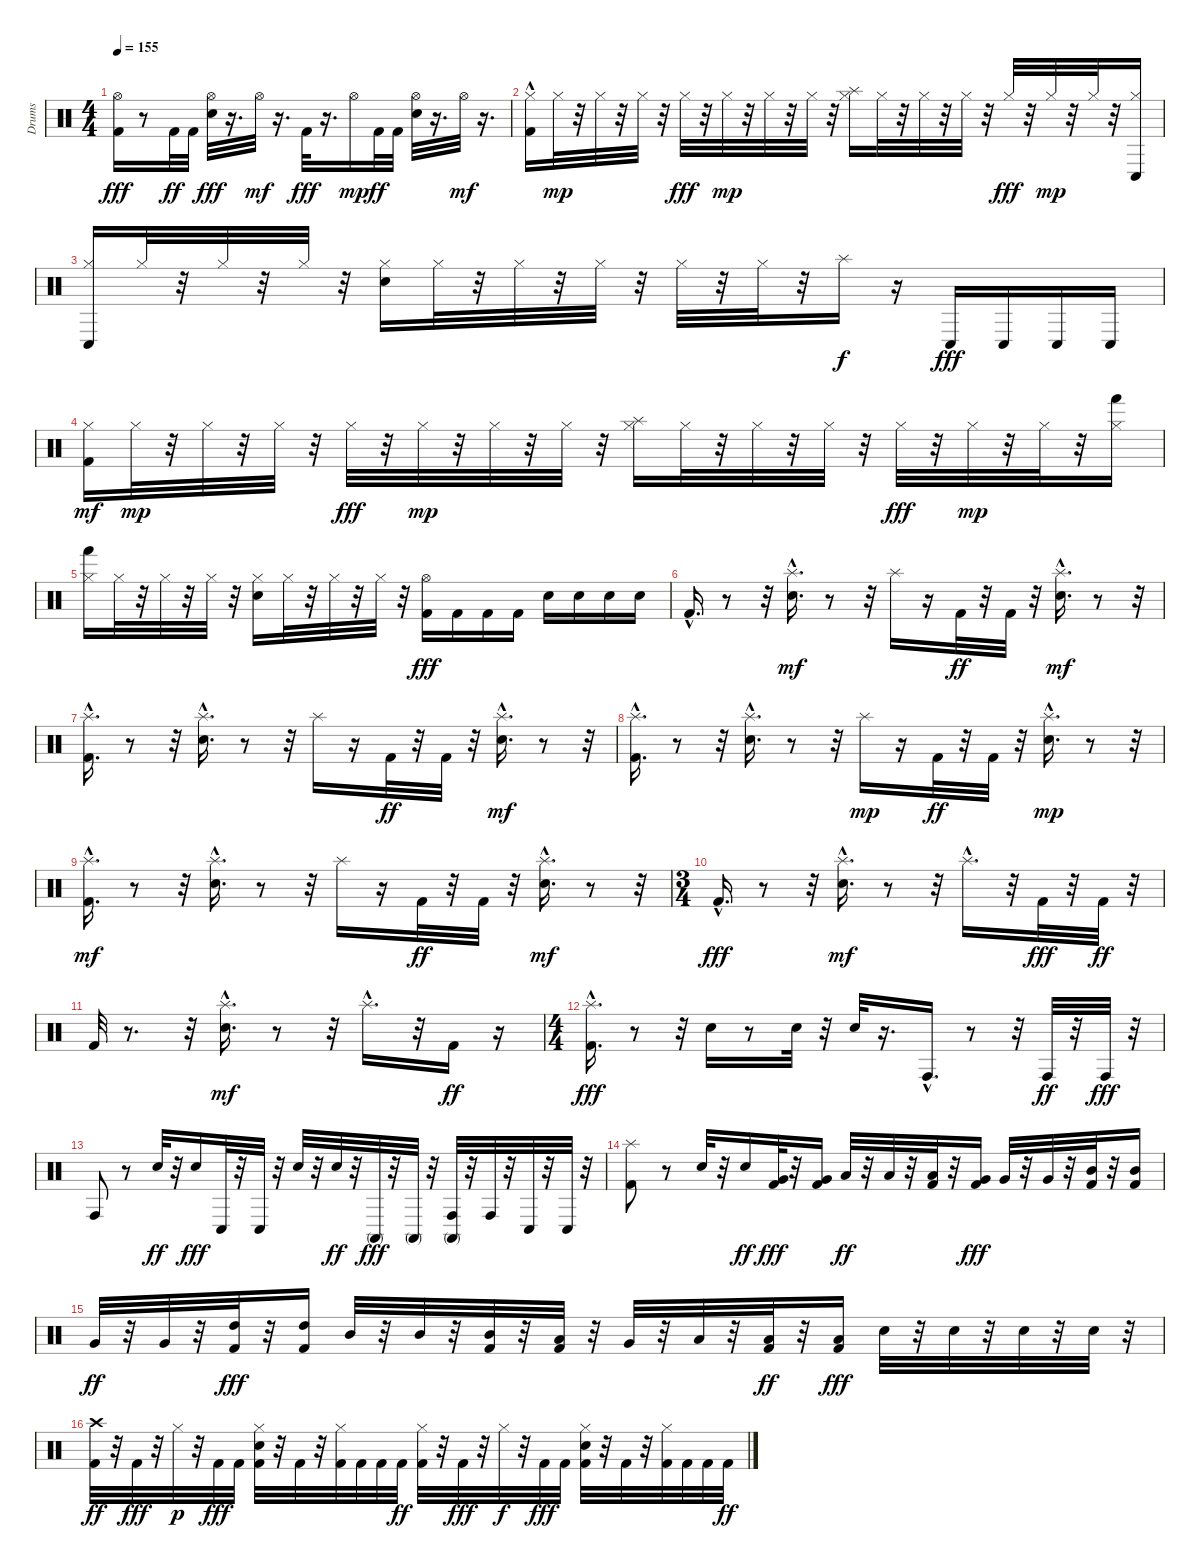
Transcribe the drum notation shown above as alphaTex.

\track ("Drums" "Drums") {instrument percussion}
\staff {score}
\articulation defaults
\ts (4 4)
\tempo 155
\clef neutral
\ks c
("Hi-Hat (open)" "Kick (hit) 2").16{dy fff} r.8 "Kick (hit) 2".32{dy ff} "Kick (hit) 2".32 ("Hi-Hat (open)" "Electric Snare (hit)").32{dy fff} r.16{d} "Hi-Hat (open)".32{dy mf} r.16{d} "Kick (hit) 2".32{dy fff} r.16{d} "Hi-Hat (open)".16{dy mp} "Kick (hit) 2".32{dy ff} "Kick (hit) 2".32 ("Hi-Hat (open)" "Electric Snare (hit)").32 r.16{d} "Hi-Hat (open)".32{dy mf} r.16{d} |
("Kick (hit) 2"{hac} "Hi-Hat (closed)").16 "Hi-Hat (closed)".32{dy mp} r.32 "Hi-Hat (closed)".32 r.32 "Hi-Hat (closed)".32 r.32 "Hi-Hat (closed)".32{dy fff} r.32 "Hi-Hat (closed)".32{dy mp} r.32 "Hi-Hat (closed)".32 r.32 "Hi-Hat (closed)".32 r.32 ("Hi-Hat (closed)" "Splash (hit)").16 "Hi-Hat (closed)".32 r.32 "Hi-Hat (closed)".32 r.32 "Hi-Hat (closed)".32 r.32 "Hi-Hat (closed)".32{dy fff} r.32 "Hi-Hat (closed)".32{dy mp} r.32 "Hi-Hat (closed)".32 r.32 ("Conga low (hit)" "Hi-Hat (closed)").16 |
("Conga low (hit)" "Hi-Hat (closed)").16 "Hi-Hat (closed)".32 r.32 "Hi-Hat (closed)".32 r.32 "Hi-Hat (closed)".32 r.32 ("Electric Snare (hit)" "Hi-Hat (closed)").16 "Hi-Hat (closed)".32 r.32 "Hi-Hat (closed)".32 r.32 "Hi-Hat (closed)".32 r.32 "Hi-Hat (closed)".32 r.32 "Hi-Hat (closed)".32 r.32 "Splash (hit)".16{dy f} r.16 "Conga low (hit)".16{dy fff} "Conga low (hit)".16 "Conga low (hit)".16 "Conga low (hit)".16 |
("Kick (hit) 2" "Hi-Hat (closed)").16{dy mf} "Hi-Hat (closed)".32{dy mp} r.32 "Hi-Hat (closed)".32 r.32 "Hi-Hat (closed)".32 r.32 "Hi-Hat (closed)".32{dy fff} r.32 "Hi-Hat (closed)".32{dy mp} r.32 "Hi-Hat (closed)".32 r.32 "Hi-Hat (closed)".32 r.32 ("Hi-Hat (closed)" "Splash (hit)").16 "Hi-Hat (closed)".32 r.32 "Hi-Hat (closed)".32 r.32 "Hi-Hat (closed)".32 r.32 "Hi-Hat (closed)".32{dy fff} r.32 "Hi-Hat (closed)".32{dy mp} r.32 "Hi-Hat (closed)".32 r.32 ("Hand (hit)" "Hi-Hat (closed)").16 |
("Hand (hit)" "Hi-Hat (closed)").16 "Hi-Hat (closed)".32 r.32 "Hi-Hat (closed)".32 r.32 "Hi-Hat (closed)".32 r.32 ("Electric Snare (hit)" "Hi-Hat (closed)").16 "Hi-Hat (closed)".32 r.32 "Hi-Hat (closed)".32 r.32 "Hi-Hat (closed)".32 r.32 ("Kick (hit) 2" "Hi-Hat (open)").16{dy fff} "Kick (hit) 2".16 "Kick (hit) 2".16 "Kick (hit) 2".16 "Electric Snare (hit)".16 "Electric Snare (hit)".16 "Electric Snare (hit)".16 "Electric Snare (hit)".16 |
"Kick (hit) 2"{hac}.16{d} r.8 r.32 ("Electric Snare (hit)"{hac} "Splash (hit)"{hac}).16{d dy mf} r.8 r.32 "Splash (hit)".16 r.16 "Kick (hit) 2".32{dy ff} r.32 "Kick (hit) 2".32 r.32 ("Electric Snare (hit)"{hac} "Splash (hit)").16{d dy mf} r.8 r.32 |
("Kick (hit) 2"{hac} "Splash (hit)").16{d} r.8 r.32 ("Electric Snare (hit)"{hac} "Splash (hit)").16{d} r.8 r.32 "Splash (hit)".16 r.16 "Kick (hit) 2".32{dy ff} r.32 "Kick (hit) 2".32 r.32 ("Electric Snare (hit)"{hac} "Splash (hit)").16{d dy mf} r.8 r.32 |
("Kick (hit) 2"{hac} "Splash (hit)").16{d} r.8 r.32 ("Electric Snare (hit)"{hac} "Splash (hit)").16{d} r.8 r.32 "Splash (hit)".16{dy mp} r.16 "Kick (hit) 2".32{dy ff} r.32 "Kick (hit) 2".32 r.32 ("Electric Snare (hit)"{hac} "Splash (hit)").16{d dy mp} r.8 r.32 |
("Kick (hit) 2"{hac} "Splash (hit)").16{d dy mf} r.8 r.32 ("Electric Snare (hit)"{hac} "Splash (hit)").16{d} r.8 r.32 "Splash (hit)".16 r.16 "Kick (hit) 2".32{dy ff} r.32 "Kick (hit) 2".32 r.32 ("Electric Snare (hit)"{hac} "Splash (hit)"{hac}).16{d dy mf} r.8 r.32 |
\ts (3 4)
"Kick (hit) 2"{hac}.16{d dy fff} r.8 r.32 ("Electric Snare (hit)"{hac} "Splash (hit)"{hac}).16{d dy mf} r.8 r.32 "Splash (hit)"{hac}.16{d} r.32 "Kick (hit) 2".32{dy fff} r.32 "Kick (hit) 2".32{dy ff} r.32 |
"Kick (hit) 2".32 r.8{d} r.32 ("Electric Snare (hit)"{hac} "Splash (hit)"{hac}).16{d dy mf} r.8 r.32 "Splash (hit)"{hac}.16{d} r.32 "Kick (hit) 2".16{dy ff} r.16 |
\ts (4 4)
("Kick (hit) 2"{hac} "Splash (hit)").16{d dy fff} r.8 r.32 "Electric Snare (hit)".16 r.8 "Electric Snare (hit)".32 r.32 "Electric Snare (hit)".32 r.16{d} "Conga high (hit)"{hac}.16{d} r.8 r.32 "Conga high (hit)".32{dy ff} r.32 "Conga high (hit)".32{dy fff} r.32 |
"Conga high (hit)".8 r.8 "Electric Snare (hit)".32{dy ff} r.32 "Electric Snare (hit)".16{dy fff} "Conga low (hit)".32 r.32 "Conga low (hit)".32 r.32 "Electric Snare (hit)".32 r.32 "Electric Snare (hit)".32{dy ff} r.32 "Conga high (mute)".32{dy fff} r.32 "Conga high (mute)".32 r.32 ("Conga high (mute)" "Conga high (hit)").32 r.32 "Conga high (hit)".32 r.32 "Conga low (hit)".32 r.32 "Conga low (hit)".32 r.32 |
("Kick (hit) 2" "Splash (hit)").8 r.8 "Electric Snare (hit)".32 r.32 "Electric Snare (hit)".16{dy ff} ("Kick (hit) 2" "Very Low Tom (hit)").32{dy fff} r.32 ("Kick (hit) 2" "Very Low Tom (hit)").16 "Low Tom (hit)".32{dy ff} r.32 "Low Tom (hit)".32 r.32 ("Kick (hit) 2" "Low Tom (hit)").32 r.32 ("Kick (hit) 2" "Very Low Tom (hit)").16{dy fff} "Very Low Tom (hit)".32 r.32 "Very Low Tom (hit)".32 r.32 ("Kick (hit) 2" "Mid Tom (hit)").32 r.32 ("Kick (hit) 2" "Mid Tom (hit)").16 |
"Very Low Tom (hit)".32{dy ff} r.32 "Very Low Tom (hit)".32 r.32 ("Kick (hit) 2" "High Tom (hit)").32{dy fff} r.32 ("Kick (hit) 2" "High Tom (hit)").16 "Mid Tom (hit)".32 r.32 "Mid Tom (hit)".32 r.32 ("Kick (hit) 2" "Mid Tom (hit)").32 r.32 ("Kick (hit) 2" "Low Tom (hit)").32 r.32 "Very Low Tom (hit)".32 r.32 "Low Tom (hit)".32 r.32 ("Kick (hit) 2" "Low Tom (hit)").32{dy ff} r.32 ("Kick (hit) 2" "Low Tom (hit)").16{dy fff} "Electric Snare (hit)".32 r.32 "Electric Snare (hit)".32 r.32 "Electric Snare (hit)".32 r.32 "Electric Snare (hit)".32 r.32 |
("Crash high (hit)" "Kick (hit) 2").32{dy ff} r.32 "Kick (hit) 2".32{dy fff} r.32 "Hi-Hat (closed)".32{dy p} r.32 "Kick (hit) 2".32{dy fff} "Kick (hit) 2".32 ("Hi-Hat (closed)" "Kick (hit) 2" "Electric Snare (hit)").32 r.32 "Kick (hit) 2".32 r.32 ("Hi-Hat (closed)" "Kick (hit) 2").32 "Kick (hit) 2".32 "Kick (hit) 2".32 "Kick (hit) 2".32{dy ff} ("Hi-Hat (closed)" "Kick (hit) 2").32 r.32 "Kick (hit) 2".32{dy fff} r.32 "Hi-Hat (closed)".32{dy f} r.32 "Kick (hit) 2".32{dy fff} "Kick (hit) 2".32 ("Hi-Hat (closed)" "Electric Snare (hit)" "Kick (hit) 2").32 r.32 "Kick (hit) 2".32 r.32 ("Hi-Hat (closed)" "Kick (hit) 2").32 "Kick (hit) 2".32 "Kick (hit) 2".32 "Kick (hit) 2".32{dy ff}
